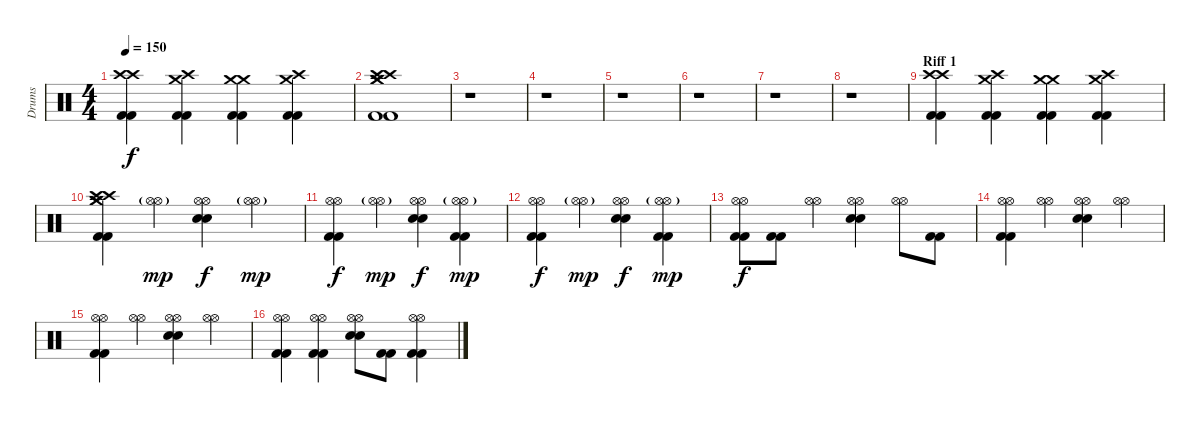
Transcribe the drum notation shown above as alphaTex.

\track ("Drums" "Drums") {instrument percussion}
\staff {score}
\articulation defaults
\ts (4 4)
\tempo 150
\clef neutral
\ks c
("Crash high (hit)" "Crash high (hit)" "Kick (hit) 2" "Kick (hit) 2").4{dy f} ("Crash high (hit)" "Crash medium (hit)" "Kick (hit) 2" "Kick (hit) 2").4 ("Crash medium (hit)" "Crash medium (hit)" "Kick (hit) 2" "Kick (hit) 2").4 ("Crash medium (hit)" "Crash high (hit)" "Kick (hit) 2" "Kick (hit) 2").4 |
("Crash high (hit)" "Crash high (hit)" "Crash medium (hit)" "Crash medium (hit)" "Kick (hit) 2" "Kick (hit) 2").1 |
r.1 |
r.1 |
r.1 |
r.1 |
r.1 |
r.1 |
\section ("" "Riff 1")
("Crash high (hit)" "Crash high (hit)" "Kick (hit) 2" "Kick (hit) 2").4 ("Crash high (hit)" "Crash medium (hit)" "Kick (hit) 2" "Kick (hit) 2").4 ("Crash medium (hit)" "Crash medium (hit)" "Kick (hit) 2" "Kick (hit) 2").4 ("Crash medium (hit)" "Crash high (hit)" "Kick (hit) 2" "Kick (hit) 2").4 |
("Crash high (hit)" "Crash high (hit)" "Crash medium (hit)" "Crash medium (hit)" "Kick (hit) 2" "Kick (hit) 2").4 ("Hi-Hat (open)"{g} "Hi-Hat (open)"{g}).4{dy mp} ("Hi-Hat (open)" "Hi-Hat (open)" "Electric Snare (hit)" "Electric Snare (hit)").4{dy f} ("Hi-Hat (open)"{g} "Hi-Hat (open)"{g}).4{dy mp} |
("Hi-Hat (open)" "Hi-Hat (open)" "Kick (hit) 2" "Kick (hit) 2").4{dy f} ("Hi-Hat (open)"{g} "Hi-Hat (open)"{g}).4{dy mp} ("Hi-Hat (open)" "Hi-Hat (open)" "Electric Snare (hit)" "Electric Snare (hit)").4{dy f} ("Hi-Hat (open)"{g} "Hi-Hat (open)"{g} "Kick (hit) 2" "Kick (hit) 2").4{dy mp} |
("Hi-Hat (open)" "Hi-Hat (open)" "Kick (hit) 2" "Kick (hit) 2").4{dy f} ("Hi-Hat (open)"{g} "Hi-Hat (open)"{g}).4{dy mp} ("Hi-Hat (open)" "Hi-Hat (open)" "Electric Snare (hit)" "Electric Snare (hit)").4{dy f} ("Hi-Hat (open)"{g} "Hi-Hat (open)"{g} "Kick (hit) 2" "Kick (hit) 2").4{dy mp} |
("Hi-Hat (open)" "Hi-Hat (open)" "Kick (hit) 2" "Kick (hit) 2").8{dy f} ("Kick (hit) 2" "Kick (hit) 2").8 ("Hi-Hat (open)" "Hi-Hat (open)").4 ("Hi-Hat (open)" "Hi-Hat (open)" "Electric Snare (hit)" "Electric Snare (hit)").4 ("Hi-Hat (open)" "Hi-Hat (open)").8 ("Kick (hit) 2" "Kick (hit) 2").8 |
("Hi-Hat (open)" "Hi-Hat (open)" "Kick (hit) 2" "Kick (hit) 2").4 ("Hi-Hat (open)" "Hi-Hat (open)").4 ("Hi-Hat (open)" "Hi-Hat (open)" "Electric Snare (hit)" "Electric Snare (hit)").4 ("Hi-Hat (open)" "Hi-Hat (open)").4 |
("Hi-Hat (open)" "Hi-Hat (open)" "Kick (hit) 2" "Kick (hit) 2").4 ("Hi-Hat (open)" "Hi-Hat (open)").4 ("Hi-Hat (open)" "Hi-Hat (open)" "Electric Snare (hit)" "Electric Snare (hit)").4 ("Hi-Hat (open)" "Hi-Hat (open)").4 |
("Hi-Hat (open)" "Hi-Hat (open)" "Kick (hit) 2" "Kick (hit) 2").4 ("Hi-Hat (open)" "Hi-Hat (open)" "Kick (hit) 2" "Kick (hit) 2").4 ("Hi-Hat (open)" "Hi-Hat (open)" "Electric Snare (hit)" "Electric Snare (hit)").8 ("Kick (hit) 2" "Kick (hit) 2").8 ("Hi-Hat (open)" "Hi-Hat (open)" "Kick (hit) 2" "Kick (hit) 2").4
